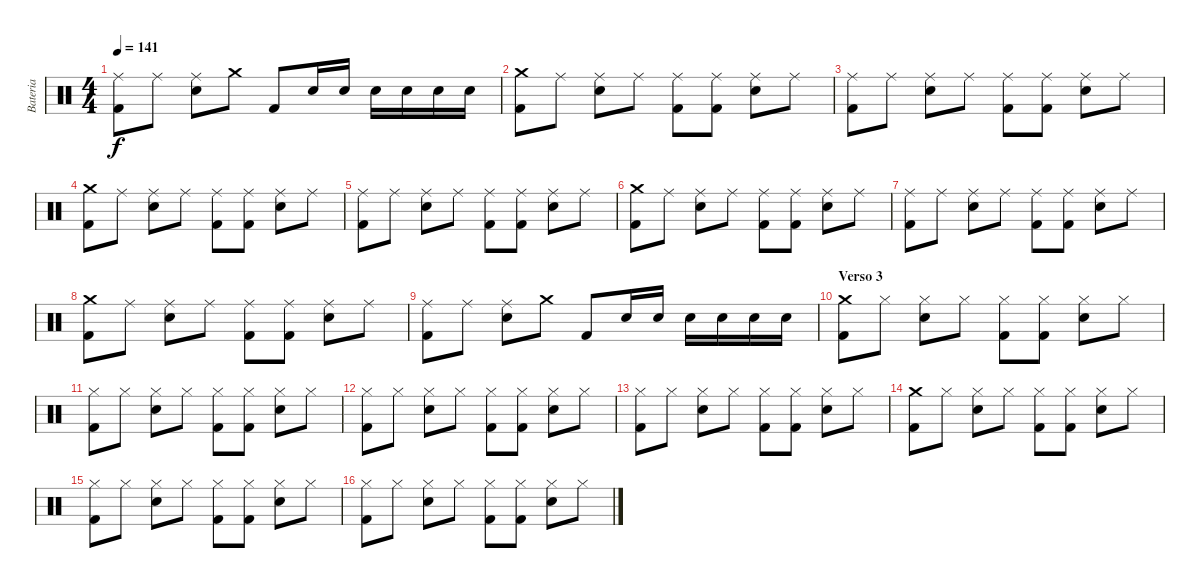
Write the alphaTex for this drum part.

\track ("Bateria" "Bateria") {instrument percussion}
\staff {score}
\articulation defaults
\ts (4 4)
\tempo 141
\clef neutral
\ks c
("Ride (middle)" "Kick (hit) 2").8{dy f} "Ride (middle)".8 ("Ride (middle)" "Electric Snare (hit)").8 "Crash medium (hit)".8 "Kick (hit) 2".8 "Electric Snare (hit)".16 "Electric Snare (hit)".16 "Electric Snare (hit)".16 "Electric Snare (hit)".16 "Electric Snare (hit)".16 "Electric Snare (hit)".16 |
("Crash medium (hit)" "Kick (hit) 2").8 "Ride (middle)".8 ("Ride (middle)" "Electric Snare (hit)").8 "Ride (middle)".8 ("Ride (middle)" "Kick (hit) 2").8 ("Ride (middle)" "Kick (hit) 2").8 ("Ride (middle)" "Electric Snare (hit)").8 "Ride (middle)".8 |
("Ride (middle)" "Kick (hit) 2").8 "Ride (middle)".8 ("Ride (middle)" "Electric Snare (hit)").8 "Ride (middle)".8 ("Ride (middle)" "Kick (hit) 2").8 ("Ride (middle)" "Kick (hit) 2").8 ("Ride (middle)" "Electric Snare (hit)").8 "Ride (middle)".8 |
("Crash medium (hit)" "Kick (hit) 2").8 "Ride (middle)".8 ("Ride (middle)" "Electric Snare (hit)").8 "Ride (middle)".8 ("Ride (middle)" "Kick (hit) 2").8 ("Ride (middle)" "Kick (hit) 2").8 ("Ride (middle)" "Electric Snare (hit)").8 "Ride (middle)".8 |
("Ride (middle)" "Kick (hit) 2").8 "Ride (middle)".8 ("Ride (middle)" "Electric Snare (hit)").8 "Ride (middle)".8 ("Ride (middle)" "Kick (hit) 2").8 ("Ride (middle)" "Kick (hit) 2").8 ("Ride (middle)" "Electric Snare (hit)").8 "Ride (middle)".8 |
("Crash medium (hit)" "Kick (hit) 2").8 "Ride (middle)".8 ("Ride (middle)" "Electric Snare (hit)").8 "Ride (middle)".8 ("Ride (middle)" "Kick (hit) 2").8 ("Ride (middle)" "Kick (hit) 2").8 ("Ride (middle)" "Electric Snare (hit)").8 "Ride (middle)".8 |
("Ride (middle)" "Kick (hit) 2").8 "Ride (middle)".8 ("Ride (middle)" "Electric Snare (hit)").8 "Ride (middle)".8 ("Ride (middle)" "Kick (hit) 2").8 ("Ride (middle)" "Kick (hit) 2").8 ("Ride (middle)" "Electric Snare (hit)").8 "Ride (middle)".8 |
("Crash medium (hit)" "Kick (hit) 2").8 "Ride (middle)".8 ("Ride (middle)" "Electric Snare (hit)").8 "Ride (middle)".8 ("Ride (middle)" "Kick (hit) 2").8 ("Ride (middle)" "Kick (hit) 2").8 ("Ride (middle)" "Electric Snare (hit)").8 "Ride (middle)".8 |
("Ride (middle)" "Kick (hit) 2").8 "Ride (middle)".8 ("Ride (middle)" "Electric Snare (hit)").8 "Crash medium (hit)".8 "Kick (hit) 2".8 "Electric Snare (hit)".16 "Electric Snare (hit)".16 "Electric Snare (hit)".16 "Electric Snare (hit)".16 "Electric Snare (hit)".16 "Electric Snare (hit)".16 |
\section ("" "Verso 3")
("Crash medium (hit)" "Kick (hit) 2").8 "Hi-Hat (closed)".8 ("Hi-Hat (closed)" "Electric Snare (hit)").8 "Hi-Hat (closed)".8 ("Hi-Hat (closed)" "Kick (hit) 2").8 ("Hi-Hat (closed)" "Kick (hit) 2").8 ("Hi-Hat (closed)" "Electric Snare (hit)").8 "Hi-Hat (closed)".8 |
("Hi-Hat (closed)" "Kick (hit) 2").8 "Hi-Hat (closed)".8 ("Hi-Hat (closed)" "Electric Snare (hit)").8 "Hi-Hat (closed)".8 ("Hi-Hat (closed)" "Kick (hit) 2").8 ("Hi-Hat (closed)" "Kick (hit) 2").8 ("Hi-Hat (closed)" "Electric Snare (hit)").8 "Hi-Hat (closed)".8 |
("Hi-Hat (closed)" "Kick (hit) 2").8 "Hi-Hat (closed)".8 ("Hi-Hat (closed)" "Electric Snare (hit)").8 "Hi-Hat (closed)".8 ("Hi-Hat (closed)" "Kick (hit) 2").8 ("Hi-Hat (closed)" "Kick (hit) 2").8 ("Hi-Hat (closed)" "Electric Snare (hit)").8 "Hi-Hat (closed)".8 |
("Hi-Hat (closed)" "Kick (hit) 2").8 "Hi-Hat (closed)".8 ("Hi-Hat (closed)" "Electric Snare (hit)").8 "Hi-Hat (closed)".8 ("Hi-Hat (closed)" "Kick (hit) 2").8 ("Hi-Hat (closed)" "Kick (hit) 2").8 ("Hi-Hat (closed)" "Electric Snare (hit)").8 "Hi-Hat (closed)".8 |
("Crash medium (hit)" "Kick (hit) 2").8 "Hi-Hat (closed)".8 ("Hi-Hat (closed)" "Electric Snare (hit)").8 "Hi-Hat (closed)".8 ("Hi-Hat (closed)" "Kick (hit) 2").8 ("Hi-Hat (closed)" "Kick (hit) 2").8 ("Hi-Hat (closed)" "Electric Snare (hit)").8 "Hi-Hat (closed)".8 |
("Hi-Hat (closed)" "Kick (hit) 2").8 "Hi-Hat (closed)".8 ("Hi-Hat (closed)" "Electric Snare (hit)").8 "Hi-Hat (closed)".8 ("Hi-Hat (closed)" "Kick (hit) 2").8 ("Hi-Hat (closed)" "Kick (hit) 2").8 ("Hi-Hat (closed)" "Electric Snare (hit)").8 "Hi-Hat (closed)".8 |
("Hi-Hat (closed)" "Kick (hit) 2").8 "Hi-Hat (closed)".8 ("Hi-Hat (closed)" "Electric Snare (hit)").8 "Hi-Hat (closed)".8 ("Hi-Hat (closed)" "Kick (hit) 2").8 ("Hi-Hat (closed)" "Kick (hit) 2").8 ("Hi-Hat (closed)" "Electric Snare (hit)").8 "Hi-Hat (closed)".8
